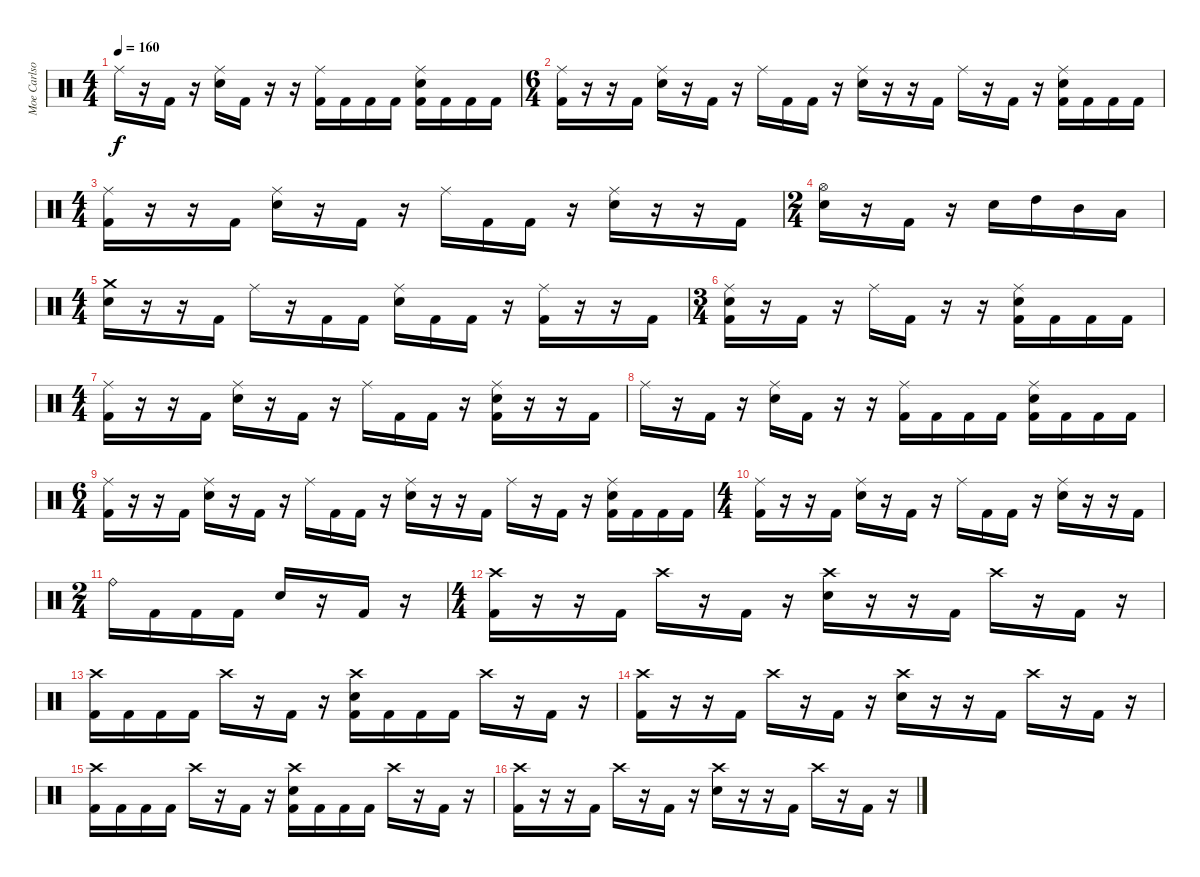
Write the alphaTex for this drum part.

\track ("Moe Carlson" "Moe Carlso") {instrument percussion}
\staff {score}
\articulation defaults
\ts (4 4)
\tempo 160
\clef neutral
\ks c "Ride (middle)".16{dy f}
r.16 "Kick (hit) 2".16 r.16 ("Ride (middle)" "Electric Snare (hit)").16 "Kick (hit) 2".16 r.16 r.16 ("Ride (middle)" "Kick (hit) 2").16 "Kick (hit) 2".16 "Kick (hit) 2".16 "Kick (hit) 2".16 ("Ride (middle)" "Electric Snare (hit)" "Kick (hit) 2").16 "Kick (hit) 2".16 "Kick (hit) 2".16 "Kick (hit) 2".16 |
\ts (6 4)
("Ride (middle)" "Kick (hit) 2").16 r.16 r.16 "Kick (hit) 2".16 ("Ride (middle)" "Electric Snare (hit)").16 r.16 "Kick (hit) 2".16 r.16 "Ride (middle)".16 "Kick (hit) 2".16 "Kick (hit) 2".16 r.16 ("Ride (middle)" "Electric Snare (hit)").16 r.16 r.16 "Kick (hit) 2".16 "Ride (middle)".16 r.16 "Kick (hit) 2".16 r.16 ("Ride (middle)" "Electric Snare (hit)" "Kick (hit) 2").16 "Kick (hit) 2".16 "Kick (hit) 2".16 "Kick (hit) 2".16 |
\ts (4 4)
("Ride (middle)" "Kick (hit) 2").16 r.16 r.16 "Kick (hit) 2".16 ("Ride (middle)" "Electric Snare (hit)").16 r.16 "Kick (hit) 2".16 r.16 "Ride (middle)".16 "Kick (hit) 2".16 "Kick (hit) 2".16 r.16 ("Ride (middle)" "Electric Snare (hit)").16 r.16 r.16 "Kick (hit) 2".16 |
\ts (2 4)
("Hi-Hat (open)" "Electric Snare (hit)").16 r.16 "Kick (hit) 2".16 r.16 "Electric Snare (hit)".16 "High Tom (hit)".16 "Mid Tom (hit)".16 "Low Tom (hit)".16 |
\ts (4 4)
("Crash medium (hit)" "Electric Snare (hit)").16 r.16 r.16 "Kick (hit) 2".16 "Ride (middle)".16 r.16 "Kick (hit) 2".16 "Kick (hit) 2".16 ("Ride (middle)" "Electric Snare (hit)").16 "Kick (hit) 2".16 "Kick (hit) 2".16 r.16 ("Ride (middle)" "Kick (hit) 2").16 r.16 r.16 "Kick (hit) 2".16 |
\ts (3 4)
("Ride (middle)" "Electric Snare (hit)" "Kick (hit) 2").16 r.16 "Kick (hit) 2".16 r.16 "Ride (middle)".16 "Kick (hit) 2".16 r.16 r.16 ("Ride (middle)" "Electric Snare (hit)" "Kick (hit) 2").16 "Kick (hit) 2".16 "Kick (hit) 2".16 "Kick (hit) 2".16 |
\ts (4 4)
("Ride (middle)" "Kick (hit) 2").16 r.16 r.16 "Kick (hit) 2".16 ("Ride (middle)" "Electric Snare (hit)").16 r.16 "Kick (hit) 2".16 r.16 "Ride (middle)".16 "Kick (hit) 2".16 "Kick (hit) 2".16 r.16 ("Ride (middle)" "Electric Snare (hit)" "Kick (hit) 2").16 r.16 r.16 "Kick (hit) 2".16 |
"Ride (middle)".16 r.16 "Kick (hit) 2".16 r.16 ("Ride (middle)" "Electric Snare (hit)").16 "Kick (hit) 2".16 r.16 r.16 ("Ride (middle)" "Kick (hit) 2").16 "Kick (hit) 2".16 "Kick (hit) 2".16 "Kick (hit) 2".16 ("Ride (middle)" "Electric Snare (hit)" "Kick (hit) 2").16 "Kick (hit) 2".16 "Kick (hit) 2".16 "Kick (hit) 2".16 |
\ts (6 4)
("Ride (middle)" "Kick (hit) 2").16 r.16 r.16 "Kick (hit) 2".16 ("Ride (middle)" "Electric Snare (hit)").16 r.16 "Kick (hit) 2".16 r.16 "Ride (middle)".16 "Kick (hit) 2".16 "Kick (hit) 2".16 r.16 ("Ride (middle)" "Electric Snare (hit)").16 r.16 r.16 "Kick (hit) 2".16 "Ride (middle)".16 r.16 "Kick (hit) 2".16 r.16 ("Ride (middle)" "Electric Snare (hit)" "Kick (hit) 2").16 "Kick (hit) 2".16 "Kick (hit) 2".16 "Kick (hit) 2".16 |
\ts (4 4)
("Ride (middle)" "Kick (hit) 2").16 r.16 r.16 "Kick (hit) 2".16 ("Ride (middle)" "Electric Snare (hit)").16 r.16 "Kick (hit) 2".16 r.16 "Ride (middle)".16 "Kick (hit) 2".16 "Kick (hit) 2".16 r.16 ("Ride (middle)" "Electric Snare (hit)").16 r.16 r.16 "Kick (hit) 2".16 |
\ts (2 4)
"Ride (bell)".16 "Kick (hit) 2".16 "Kick (hit) 2".16 "Kick (hit) 2".16 "Electric Snare (hit)".16 r.16 "Kick (hit) 2".16 r.16 |
\ts (4 4)
("Crash high (hit)" "Kick (hit) 2").16 r.16 r.16 "Kick (hit) 2".16 "Crash high (hit)".16 r.16 "Kick (hit) 2".16 r.16 ("Crash high (hit)" "Electric Snare (hit)").16 r.16 r.16 "Kick (hit) 2".16 "Crash high (hit)".16 r.16 "Kick (hit) 2".16 r.16 |
("Crash high (hit)" "Kick (hit) 2").16 "Kick (hit) 2".16 "Kick (hit) 2".16 "Kick (hit) 2".16 "Crash high (hit)".16 r.16 "Kick (hit) 2".16 r.16 ("Crash high (hit)" "Electric Snare (hit)" "Kick (hit) 2").16 "Kick (hit) 2".16 "Kick (hit) 2".16 "Kick (hit) 2".16 "Crash high (hit)".16 r.16 "Kick (hit) 2".16 r.16 |
("Crash high (hit)" "Kick (hit) 2").16 r.16 r.16 "Kick (hit) 2".16 "Crash high (hit)".16 r.16 "Kick (hit) 2".16 r.16 ("Crash high (hit)" "Electric Snare (hit)").16 r.16 r.16 "Kick (hit) 2".16 "Crash high (hit)".16 r.16 "Kick (hit) 2".16 r.16 |
("Crash high (hit)" "Kick (hit) 2").16 "Kick (hit) 2".16 "Kick (hit) 2".16 "Kick (hit) 2".16 "Crash high (hit)".16 r.16 "Kick (hit) 2".16 r.16 ("Crash high (hit)" "Electric Snare (hit)" "Kick (hit) 2").16 "Kick (hit) 2".16 "Kick (hit) 2".16 "Kick (hit) 2".16 "Crash high (hit)".16 r.16 "Kick (hit) 2".16 r.16 |
("Crash high (hit)" "Kick (hit) 2").16 r.16 r.16 "Kick (hit) 2".16 "Crash high (hit)".16 r.16 "Kick (hit) 2".16 r.16 ("Crash high (hit)" "Electric Snare (hit)").16 r.16 r.16 "Kick (hit) 2".16 "Crash high (hit)".16 r.16 "Kick (hit) 2".16 r.16
